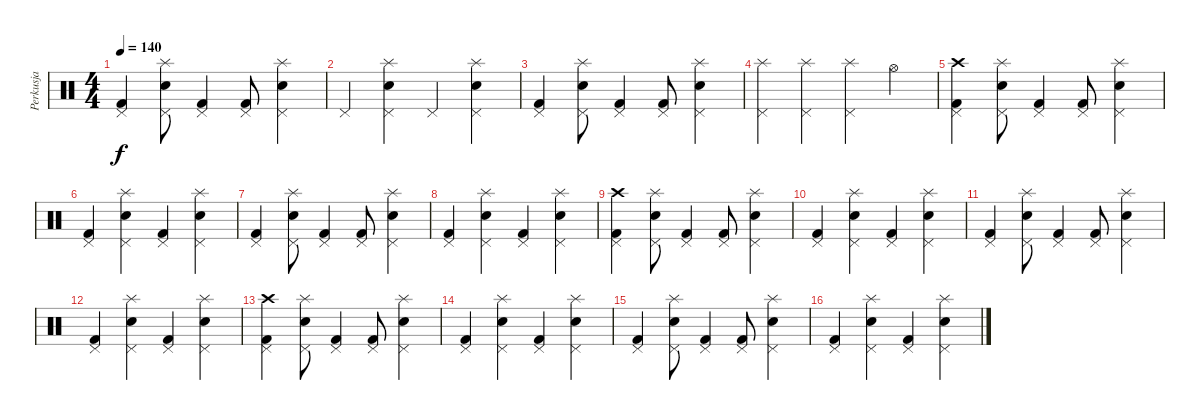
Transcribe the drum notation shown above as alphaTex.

\track ("Perkusja" "Perkusja") {instrument percussion}
\staff {score}
\articulation defaults
\ts (4 4)
\tempo 140
\clef neutral
\ks c
("Pedal Hi-Hat (hit)" "Kick (hit) 2").4{dy f} ("Pedal Hi-Hat (hit)" "Snare (hit) 2" "Splash (hit)").8 ("Pedal Hi-Hat (hit)" "Kick (hit) 2").4 ("Pedal Hi-Hat (hit)" "Kick (hit) 2").8 ("Pedal Hi-Hat (hit)" "Snare (hit) 2" "Splash (hit)").4 |
"Pedal Hi-Hat (hit)".4 ("Pedal Hi-Hat (hit)" "Snare (hit) 2" "Splash (hit)").4 "Pedal Hi-Hat (hit)".4 ("Pedal Hi-Hat (hit)" "Snare (hit) 2" "Splash (hit)").4 |
("Pedal Hi-Hat (hit)" "Kick (hit) 2").4 ("Pedal Hi-Hat (hit)" "Snare (hit) 2" "Splash (hit)").8 ("Pedal Hi-Hat (hit)" "Kick (hit) 2").4 ("Pedal Hi-Hat (hit)" "Kick (hit) 2").8 ("Pedal Hi-Hat (hit)" "Snare (hit) 2" "Splash (hit)").4 |
("Pedal Hi-Hat (hit)" "Splash (hit)").4 ("Pedal Hi-Hat (hit)" "Splash (hit)").4 ("Pedal Hi-Hat (hit)" "Splash (hit)").4 "Hi-Hat (open)".4 |
("Pedal Hi-Hat (hit)" "Kick (hit) 2" "Crash high (hit)").4 ("Pedal Hi-Hat (hit)" "Snare (hit) 2" "Splash (hit)").8 ("Pedal Hi-Hat (hit)" "Kick (hit) 2").4 ("Pedal Hi-Hat (hit)" "Kick (hit) 2").8 ("Pedal Hi-Hat (hit)" "Snare (hit) 2" "Splash (hit)").4 |
("Pedal Hi-Hat (hit)" "Kick (hit) 2").4 ("Pedal Hi-Hat (hit)" "Snare (hit) 2" "Splash (hit)").4 ("Pedal Hi-Hat (hit)" "Kick (hit) 2").4 ("Pedal Hi-Hat (hit)" "Snare (hit) 2" "Splash (hit)").4 |
("Pedal Hi-Hat (hit)" "Kick (hit) 2").4 ("Pedal Hi-Hat (hit)" "Snare (hit) 2" "Splash (hit)").8 ("Pedal Hi-Hat (hit)" "Kick (hit) 2").4 ("Pedal Hi-Hat (hit)" "Kick (hit) 2").8 ("Pedal Hi-Hat (hit)" "Snare (hit) 2" "Splash (hit)").4 |
("Pedal Hi-Hat (hit)" "Kick (hit) 2").4 ("Pedal Hi-Hat (hit)" "Snare (hit) 2" "Splash (hit)").4 ("Pedal Hi-Hat (hit)" "Kick (hit) 2").4 ("Pedal Hi-Hat (hit)" "Snare (hit) 2" "Splash (hit)").4 |
("Pedal Hi-Hat (hit)" "Kick (hit) 2" "Crash high (hit)").4 ("Pedal Hi-Hat (hit)" "Snare (hit) 2" "Splash (hit)").8 ("Pedal Hi-Hat (hit)" "Kick (hit) 2").4 ("Pedal Hi-Hat (hit)" "Kick (hit) 2").8 ("Pedal Hi-Hat (hit)" "Snare (hit) 2" "Splash (hit)").4 |
("Pedal Hi-Hat (hit)" "Kick (hit) 2").4 ("Pedal Hi-Hat (hit)" "Snare (hit) 2" "Splash (hit)").4 ("Pedal Hi-Hat (hit)" "Kick (hit) 2").4 ("Pedal Hi-Hat (hit)" "Snare (hit) 2" "Splash (hit)").4 |
("Pedal Hi-Hat (hit)" "Kick (hit) 2").4 ("Pedal Hi-Hat (hit)" "Snare (hit) 2" "Splash (hit)").8 ("Pedal Hi-Hat (hit)" "Kick (hit) 2").4 ("Pedal Hi-Hat (hit)" "Kick (hit) 2").8 ("Pedal Hi-Hat (hit)" "Snare (hit) 2" "Splash (hit)").4 |
("Pedal Hi-Hat (hit)" "Kick (hit) 2").4 ("Pedal Hi-Hat (hit)" "Snare (hit) 2" "Splash (hit)").4 ("Pedal Hi-Hat (hit)" "Kick (hit) 2").4 ("Pedal Hi-Hat (hit)" "Snare (hit) 2" "Splash (hit)").4 |
("Pedal Hi-Hat (hit)" "Kick (hit) 2" "Crash high (hit)").4 ("Pedal Hi-Hat (hit)" "Snare (hit) 2" "Splash (hit)").8 ("Pedal Hi-Hat (hit)" "Kick (hit) 2").4 ("Pedal Hi-Hat (hit)" "Kick (hit) 2").8 ("Pedal Hi-Hat (hit)" "Snare (hit) 2" "Splash (hit)").4 |
("Pedal Hi-Hat (hit)" "Kick (hit) 2").4 ("Pedal Hi-Hat (hit)" "Snare (hit) 2" "Splash (hit)").4 ("Pedal Hi-Hat (hit)" "Kick (hit) 2").4 ("Pedal Hi-Hat (hit)" "Snare (hit) 2" "Splash (hit)").4 |
("Pedal Hi-Hat (hit)" "Kick (hit) 2").4 ("Pedal Hi-Hat (hit)" "Snare (hit) 2" "Splash (hit)").8 ("Pedal Hi-Hat (hit)" "Kick (hit) 2").4 ("Pedal Hi-Hat (hit)" "Kick (hit) 2").8 ("Pedal Hi-Hat (hit)" "Snare (hit) 2" "Splash (hit)").4 |
("Pedal Hi-Hat (hit)" "Kick (hit) 2").4 ("Pedal Hi-Hat (hit)" "Snare (hit) 2" "Splash (hit)").4 ("Pedal Hi-Hat (hit)" "Kick (hit) 2").4 ("Pedal Hi-Hat (hit)" "Snare (hit) 2" "Splash (hit)").4
